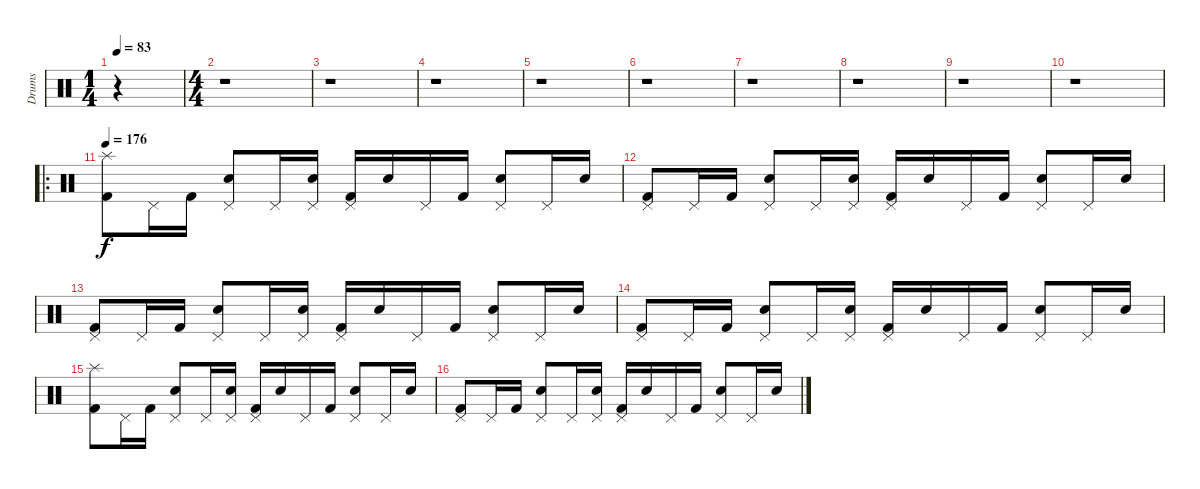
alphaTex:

\track ("Drums" "Drums") {instrument percussion}
\staff {score}
\articulation defaults
\ts (1 4)
\tempo 83
\clef neutral
\ks c
r.4{dy f} |
\ts (4 4)
r.1 |
r.1 |
r.1 |
r.1 |
r.1 |
r.1 |
r.1 |
r.1 |
r.1 |
\ro
\tempo 176
("Splash (hit)" "Kick (hit) 2").8 "Pedal Hi-Hat (hit)".16 "Kick (hit) 2".16 ("Pedal Hi-Hat (hit)" "Snare (hit) 2").8 "Pedal Hi-Hat (hit)".16 ("Pedal Hi-Hat (hit)" "Snare (hit) 2").16 ("Pedal Hi-Hat (hit)" "Kick (hit) 2").16 "Snare (hit) 2".16 "Pedal Hi-Hat (hit)".16 "Kick (hit) 2".16 ("Pedal Hi-Hat (hit)" "Snare (hit) 2").8 "Pedal Hi-Hat (hit)".16 "Snare (hit) 2".16 |
("Pedal Hi-Hat (hit)" "Kick (hit) 2").8 "Pedal Hi-Hat (hit)".16 "Kick (hit) 2".16 ("Pedal Hi-Hat (hit)" "Snare (hit) 2").8 "Pedal Hi-Hat (hit)".16 ("Pedal Hi-Hat (hit)" "Snare (hit) 2").16 ("Pedal Hi-Hat (hit)" "Kick (hit) 2").16 "Snare (hit) 2".16 "Pedal Hi-Hat (hit)".16 "Kick (hit) 2".16 ("Pedal Hi-Hat (hit)" "Snare (hit) 2").8 "Pedal Hi-Hat (hit)".16 "Snare (hit) 2".16 |
("Pedal Hi-Hat (hit)" "Kick (hit) 2").8 "Pedal Hi-Hat (hit)".16 "Kick (hit) 2".16 ("Pedal Hi-Hat (hit)" "Snare (hit) 2").8 "Pedal Hi-Hat (hit)".16 ("Pedal Hi-Hat (hit)" "Snare (hit) 2").16 ("Pedal Hi-Hat (hit)" "Kick (hit) 2").16 "Snare (hit) 2".16 "Pedal Hi-Hat (hit)".16 "Kick (hit) 2".16 ("Pedal Hi-Hat (hit)" "Snare (hit) 2").8 "Pedal Hi-Hat (hit)".16 "Snare (hit) 2".16 |
("Pedal Hi-Hat (hit)" "Kick (hit) 2").8 "Pedal Hi-Hat (hit)".16 "Kick (hit) 2".16 ("Pedal Hi-Hat (hit)" "Snare (hit) 2").8 "Pedal Hi-Hat (hit)".16 ("Pedal Hi-Hat (hit)" "Snare (hit) 2").16 ("Pedal Hi-Hat (hit)" "Kick (hit) 2").16 "Snare (hit) 2".16 "Pedal Hi-Hat (hit)".16 "Kick (hit) 2".16 ("Pedal Hi-Hat (hit)" "Snare (hit) 2").8 "Pedal Hi-Hat (hit)".16 "Snare (hit) 2".16 |
("Splash (hit)" "Kick (hit) 2").8 "Pedal Hi-Hat (hit)".16 "Kick (hit) 2".16 ("Pedal Hi-Hat (hit)" "Snare (hit) 2").8 "Pedal Hi-Hat (hit)".16 ("Pedal Hi-Hat (hit)" "Snare (hit) 2").16 ("Pedal Hi-Hat (hit)" "Kick (hit) 2").16 "Snare (hit) 2".16 "Pedal Hi-Hat (hit)".16 "Kick (hit) 2".16 ("Pedal Hi-Hat (hit)" "Snare (hit) 2").8 "Pedal Hi-Hat (hit)".16 "Snare (hit) 2".16 |
("Pedal Hi-Hat (hit)" "Kick (hit) 2").8 "Pedal Hi-Hat (hit)".16 "Kick (hit) 2".16 ("Pedal Hi-Hat (hit)" "Snare (hit) 2").8 "Pedal Hi-Hat (hit)".16 ("Pedal Hi-Hat (hit)" "Snare (hit) 2").16 ("Pedal Hi-Hat (hit)" "Kick (hit) 2").16 "Snare (hit) 2".16 "Pedal Hi-Hat (hit)".16 "Kick (hit) 2".16 ("Pedal Hi-Hat (hit)" "Snare (hit) 2").8 "Pedal Hi-Hat (hit)".16 "Snare (hit) 2".16
